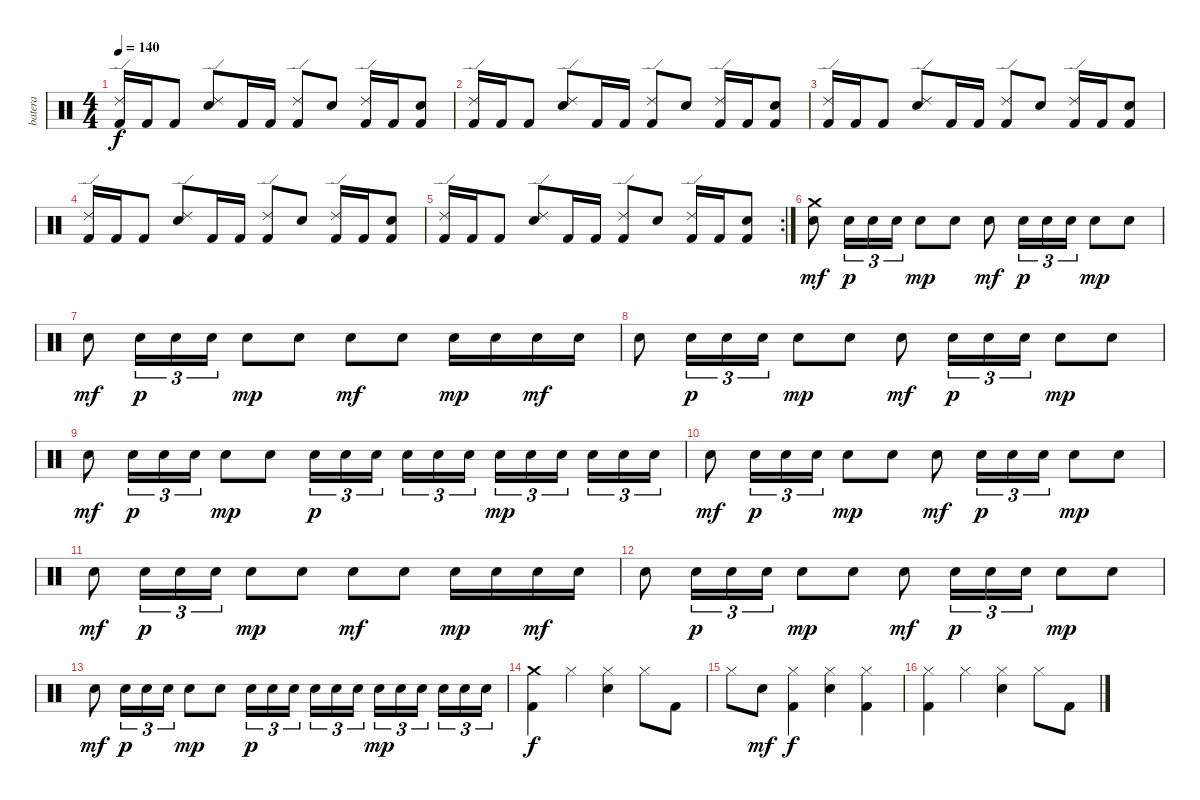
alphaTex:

\track ("batera" "batera") {instrument percussion}
\staff {score}
\articulation defaults
\ts (4 4)
\tempo 140
\clef neutral
\ks c
("Ride (edge) 2" "Kick (hit) 2").16{dy f} "Kick (hit) 2".16 "Kick (hit) 2".8 ("Ride (edge) 2" "Electric Snare (hit)").8 "Kick (hit) 2".16 "Kick (hit) 2".16 ("Ride (edge) 2" "Kick (hit) 2").8 "Electric Snare (hit)".8 ("Ride (edge) 2" "Kick (hit) 2").16 "Kick (hit) 2".16 ("Electric Snare (hit)" "Kick (hit) 2").8 |
("Ride (edge) 2" "Kick (hit) 2").16 "Kick (hit) 2".16 "Kick (hit) 2".8 ("Ride (edge) 2" "Electric Snare (hit)").8 "Kick (hit) 2".16 "Kick (hit) 2".16 ("Ride (edge) 2" "Kick (hit) 2").8 "Electric Snare (hit)".8 ("Ride (edge) 2" "Kick (hit) 2").16 "Kick (hit) 2".16 ("Electric Snare (hit)" "Kick (hit) 2").8 |
("Ride (edge) 2" "Kick (hit) 2").16 "Kick (hit) 2".16 "Kick (hit) 2".8 ("Ride (edge) 2" "Electric Snare (hit)").8 "Kick (hit) 2".16 "Kick (hit) 2".16 ("Ride (edge) 2" "Kick (hit) 2").8 "Electric Snare (hit)".8 ("Ride (edge) 2" "Kick (hit) 2").16 "Kick (hit) 2".16 ("Electric Snare (hit)" "Kick (hit) 2").8 |
("Ride (edge) 2" "Kick (hit) 2").16 "Kick (hit) 2".16 "Kick (hit) 2".8 ("Ride (edge) 2" "Electric Snare (hit)").8 "Kick (hit) 2".16 "Kick (hit) 2".16 ("Ride (edge) 2" "Kick (hit) 2").8 "Electric Snare (hit)".8 ("Ride (edge) 2" "Kick (hit) 2").16 "Kick (hit) 2".16 ("Electric Snare (hit)" "Kick (hit) 2").8 |
\rc 2
("Ride (edge) 2" "Kick (hit) 2").16 "Kick (hit) 2".16 "Kick (hit) 2".8 ("Ride (edge) 2" "Electric Snare (hit)").8 "Kick (hit) 2".16 "Kick (hit) 2".16 ("Ride (edge) 2" "Kick (hit) 2").8 "Electric Snare (hit)".8 ("Ride (edge) 2" "Kick (hit) 2").16 "Kick (hit) 2".16 ("Electric Snare (hit)" "Kick (hit) 2").8 |
("Crash medium (hit)" "Electric Snare (hit)").8{dy mf} "Electric Snare (hit)".16{tu (3 2) dy p} "Electric Snare (hit)".16{tu (3 2)} "Electric Snare (hit)".16{tu (3 2)} "Electric Snare (hit)".8{dy mp} "Electric Snare (hit)".8 "Electric Snare (hit)".8{dy mf} "Electric Snare (hit)".16{tu (3 2) dy p} "Electric Snare (hit)".16{tu (3 2)} "Electric Snare (hit)".16{tu (3 2)} "Electric Snare (hit)".8{dy mp} "Electric Snare (hit)".8 |
"Electric Snare (hit)".8{dy mf} "Electric Snare (hit)".16{tu (3 2) dy p} "Electric Snare (hit)".16{tu (3 2)} "Electric Snare (hit)".16{tu (3 2)} "Electric Snare (hit)".8{dy mp} "Electric Snare (hit)".8 "Electric Snare (hit)".8{dy mf} "Electric Snare (hit)".8 "Electric Snare (hit)".16{dy mp} "Electric Snare (hit)".16 "Electric Snare (hit)".16{dy mf} "Electric Snare (hit)".16 |
"Electric Snare (hit)".8 "Electric Snare (hit)".16{tu (3 2) dy p} "Electric Snare (hit)".16{tu (3 2)} "Electric Snare (hit)".16{tu (3 2)} "Electric Snare (hit)".8{dy mp} "Electric Snare (hit)".8 "Electric Snare (hit)".8{dy mf} "Electric Snare (hit)".16{tu (3 2) dy p} "Electric Snare (hit)".16{tu (3 2)} "Electric Snare (hit)".16{tu (3 2)} "Electric Snare (hit)".8{dy mp} "Electric Snare (hit)".8 |
"Electric Snare (hit)".8{dy mf} "Electric Snare (hit)".16{tu (3 2) dy p} "Electric Snare (hit)".16{tu (3 2)} "Electric Snare (hit)".16{tu (3 2)} "Electric Snare (hit)".8{dy mp} "Electric Snare (hit)".8 "Electric Snare (hit)".16{tu (3 2) dy p} "Electric Snare (hit)".16{tu (3 2)} "Electric Snare (hit)".16{tu (3 2)} "Electric Snare (hit)".16{tu (3 2)} "Electric Snare (hit)".16{tu (3 2)} "Electric Snare (hit)".16{tu (3 2)} "Electric Snare (hit)".16{tu (3 2) dy mp} "Electric Snare (hit)".16{tu (3 2)} "Electric Snare (hit)".16{tu (3 2)} "Electric Snare (hit)".16{tu (3 2)} "Electric Snare (hit)".16{tu (3 2)} "Electric Snare (hit)".16{tu (3 2)} |
"Electric Snare (hit)".8{dy mf} "Electric Snare (hit)".16{tu (3 2) dy p} "Electric Snare (hit)".16{tu (3 2)} "Electric Snare (hit)".16{tu (3 2)} "Electric Snare (hit)".8{dy mp} "Electric Snare (hit)".8 "Electric Snare (hit)".8{dy mf} "Electric Snare (hit)".16{tu (3 2) dy p} "Electric Snare (hit)".16{tu (3 2)} "Electric Snare (hit)".16{tu (3 2)} "Electric Snare (hit)".8{dy mp} "Electric Snare (hit)".8 |
"Electric Snare (hit)".8{dy mf} "Electric Snare (hit)".16{tu (3 2) dy p} "Electric Snare (hit)".16{tu (3 2)} "Electric Snare (hit)".16{tu (3 2)} "Electric Snare (hit)".8{dy mp} "Electric Snare (hit)".8 "Electric Snare (hit)".8{dy mf} "Electric Snare (hit)".8 "Electric Snare (hit)".16{dy mp} "Electric Snare (hit)".16 "Electric Snare (hit)".16{dy mf} "Electric Snare (hit)".16 |
"Electric Snare (hit)".8 "Electric Snare (hit)".16{tu (3 2) dy p} "Electric Snare (hit)".16{tu (3 2)} "Electric Snare (hit)".16{tu (3 2)} "Electric Snare (hit)".8{dy mp} "Electric Snare (hit)".8 "Electric Snare (hit)".8{dy mf} "Electric Snare (hit)".16{tu (3 2) dy p} "Electric Snare (hit)".16{tu (3 2)} "Electric Snare (hit)".16{tu (3 2)} "Electric Snare (hit)".8{dy mp} "Electric Snare (hit)".8 |
"Electric Snare (hit)".8{dy mf} "Electric Snare (hit)".16{tu (3 2) dy p} "Electric Snare (hit)".16{tu (3 2)} "Electric Snare (hit)".16{tu (3 2)} "Electric Snare (hit)".8{dy mp} "Electric Snare (hit)".8 "Electric Snare (hit)".16{tu (3 2) dy p} "Electric Snare (hit)".16{tu (3 2)} "Electric Snare (hit)".16{tu (3 2)} "Electric Snare (hit)".16{tu (3 2)} "Electric Snare (hit)".16{tu (3 2)} "Electric Snare (hit)".16{tu (3 2)} "Electric Snare (hit)".16{tu (3 2) dy mp} "Electric Snare (hit)".16{tu (3 2)} "Electric Snare (hit)".16{tu (3 2)} "Electric Snare (hit)".16{tu (3 2)} "Electric Snare (hit)".16{tu (3 2)} "Electric Snare (hit)".16{tu (3 2)} |
("Crash medium (hit)" "Kick (hit) 2").4{dy f} "Hi-Hat (closed)".4 ("Hi-Hat (closed)" "Electric Snare (hit)").4 "Hi-Hat (closed)".8 "Kick (hit) 2".8 |
"Hi-Hat (closed)".8 "Electric Snare (hit)".8{dy mf} ("Hi-Hat (closed)" "Kick (hit) 2").4{dy f} ("Hi-Hat (closed)" "Electric Snare (hit)").4 ("Hi-Hat (closed)" "Kick (hit) 2").4 |
("Hi-Hat (closed)" "Kick (hit) 2").4 "Hi-Hat (closed)".4 ("Hi-Hat (closed)" "Electric Snare (hit)").4 "Hi-Hat (closed)".8 "Kick (hit) 2".8
